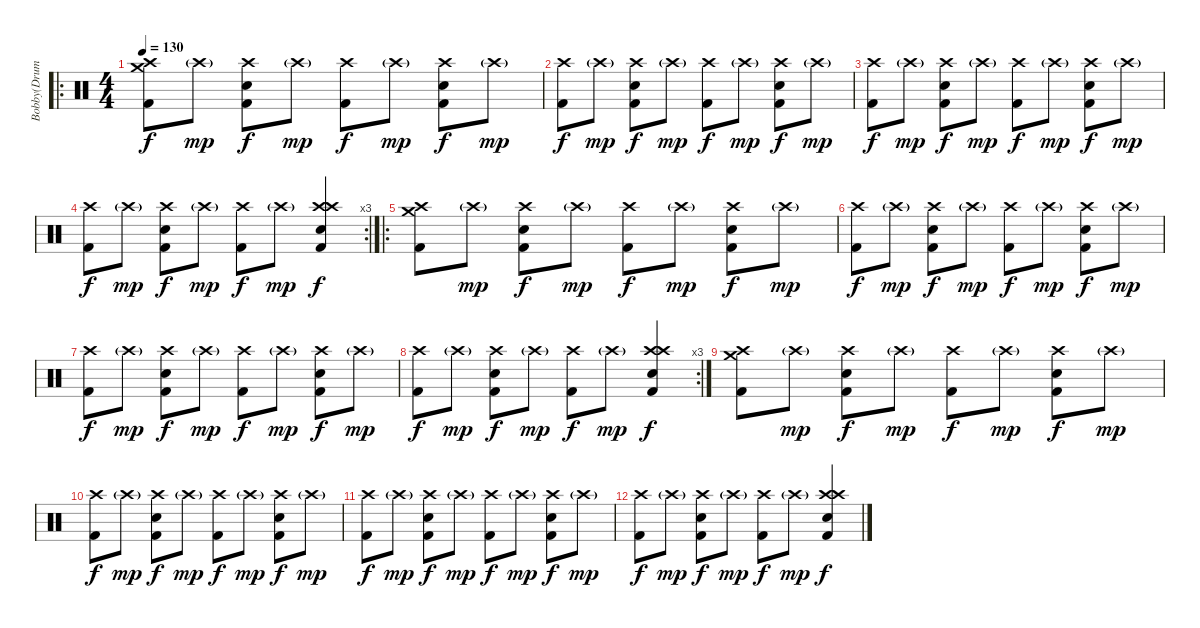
\track ("Bobby(DrumSynth)" "Bobby(Drum") {instrument percussion}
\staff {score}
\articulation defaults
\ro
\ts (4 4)
\tempo 130
\clef neutral
\ks c
("Kick (hit) 2" "Crash high (hit)" "Crash medium (hit)").8{dy f} "Crash high (hit)"{g}.8{dy mp} ("Kick (hit) 2" "Electric Snare (hit)" "Crash high (hit)").8{dy f} "Crash high (hit)"{g}.8{dy mp} ("Kick (hit) 2" "Crash high (hit)").8{dy f} "Crash high (hit)"{g}.8{dy mp} ("Kick (hit) 2" "Electric Snare (hit)" "Crash high (hit)").8{dy f} "Crash high (hit)"{g}.8{dy mp} |
("Kick (hit) 2" "Crash high (hit)").8{dy f} "Crash high (hit)"{g}.8{dy mp} ("Kick (hit) 2" "Electric Snare (hit)" "Crash high (hit)").8{dy f} "Crash high (hit)"{g}.8{dy mp} ("Kick (hit) 2" "Crash high (hit)").8{dy f} "Crash high (hit)"{g}.8{dy mp} ("Kick (hit) 2" "Electric Snare (hit)" "Crash high (hit)").8{dy f} "Crash high (hit)"{g}.8{dy mp} |
("Kick (hit) 2" "Crash high (hit)").8{dy f} "Crash high (hit)"{g}.8{dy mp} ("Kick (hit) 2" "Electric Snare (hit)" "Crash high (hit)").8{dy f} "Crash high (hit)"{g}.8{dy mp} ("Kick (hit) 2" "Crash high (hit)").8{dy f} "Crash high (hit)"{g}.8{dy mp} ("Kick (hit) 2" "Electric Snare (hit)" "Crash high (hit)").8{dy f} "Crash high (hit)"{g}.8{dy mp} |
\rc 3
("Kick (hit) 2" "Crash high (hit)").8{dy f} "Crash high (hit)"{g}.8{dy mp} ("Kick (hit) 2" "Electric Snare (hit)" "Crash high (hit)").8{dy f} "Crash high (hit)"{g}.8{dy mp} ("Kick (hit) 2" "Crash high (hit)").8{dy f} "Crash high (hit)"{g}.8{dy mp} ("Kick (hit) 2" "Electric Snare (hit)" "Crash high (hit)" "Crash high (hit)").4{dy f} |
\ro
("Kick (hit) 2" "Crash high (hit)" "Crash medium (hit)").8 "Crash high (hit)"{g}.8{dy mp} ("Kick (hit) 2" "Electric Snare (hit)" "Crash high (hit)").8{dy f} "Crash high (hit)"{g}.8{dy mp} ("Kick (hit) 2" "Crash high (hit)").8{dy f} "Crash high (hit)"{g}.8{dy mp} ("Kick (hit) 2" "Electric Snare (hit)" "Crash high (hit)").8{dy f} "Crash high (hit)"{g}.8{dy mp} |
("Kick (hit) 2" "Crash high (hit)").8{dy f} "Crash high (hit)"{g}.8{dy mp} ("Kick (hit) 2" "Electric Snare (hit)" "Crash high (hit)").8{dy f} "Crash high (hit)"{g}.8{dy mp} ("Kick (hit) 2" "Crash high (hit)").8{dy f} "Crash high (hit)"{g}.8{dy mp} ("Kick (hit) 2" "Electric Snare (hit)" "Crash high (hit)").8{dy f} "Crash high (hit)"{g}.8{dy mp} |
("Kick (hit) 2" "Crash high (hit)").8{dy f} "Crash high (hit)"{g}.8{dy mp} ("Kick (hit) 2" "Electric Snare (hit)" "Crash high (hit)").8{dy f} "Crash high (hit)"{g}.8{dy mp} ("Kick (hit) 2" "Crash high (hit)").8{dy f} "Crash high (hit)"{g}.8{dy mp} ("Kick (hit) 2" "Electric Snare (hit)" "Crash high (hit)").8{dy f} "Crash high (hit)"{g}.8{dy mp} |
\rc 3
("Kick (hit) 2" "Crash high (hit)").8{dy f} "Crash high (hit)"{g}.8{dy mp} ("Kick (hit) 2" "Electric Snare (hit)" "Crash high (hit)").8{dy f} "Crash high (hit)"{g}.8{dy mp} ("Kick (hit) 2" "Crash high (hit)").8{dy f} "Crash high (hit)"{g}.8{dy mp} ("Kick (hit) 2" "Electric Snare (hit)" "Crash high (hit)" "Crash high (hit)").4{dy f} |
("Kick (hit) 2" "Crash high (hit)" "Crash medium (hit)").8{volume 0} "Crash high (hit)"{g}.8{dy mp} ("Kick (hit) 2" "Electric Snare (hit)" "Crash high (hit)").8{dy f} "Crash high (hit)"{g}.8{dy mp} ("Kick (hit) 2" "Crash high (hit)").8{dy f} "Crash high (hit)"{g}.8{dy mp} ("Kick (hit) 2" "Electric Snare (hit)" "Crash high (hit)").8{dy f} "Crash high (hit)"{g}.8{dy mp} |
("Kick (hit) 2" "Crash high (hit)").8{dy f} "Crash high (hit)"{g}.8{dy mp} ("Kick (hit) 2" "Electric Snare (hit)" "Crash high (hit)").8{dy f} "Crash high (hit)"{g}.8{dy mp} ("Kick (hit) 2" "Crash high (hit)").8{dy f} "Crash high (hit)"{g}.8{dy mp} ("Kick (hit) 2" "Electric Snare (hit)" "Crash high (hit)").8{dy f} "Crash high (hit)"{g}.8{dy mp} |
("Kick (hit) 2" "Crash high (hit)").8{dy f} "Crash high (hit)"{g}.8{dy mp} ("Kick (hit) 2" "Electric Snare (hit)" "Crash high (hit)").8{dy f} "Crash high (hit)"{g}.8{dy mp} ("Kick (hit) 2" "Crash high (hit)").8{dy f} "Crash high (hit)"{g}.8{dy mp} ("Kick (hit) 2" "Electric Snare (hit)" "Crash high (hit)").8{dy f} "Crash high (hit)"{g}.8{dy mp} |
("Kick (hit) 2" "Crash high (hit)").8{dy f} "Crash high (hit)"{g}.8{dy mp} ("Kick (hit) 2" "Electric Snare (hit)" "Crash high (hit)").8{dy f} "Crash high (hit)"{g}.8{dy mp} ("Kick (hit) 2" "Crash high (hit)").8{dy f} "Crash high (hit)"{g}.8{dy mp} ("Kick (hit) 2" "Electric Snare (hit)" "Crash high (hit)" "Crash high (hit)").4{dy f}
